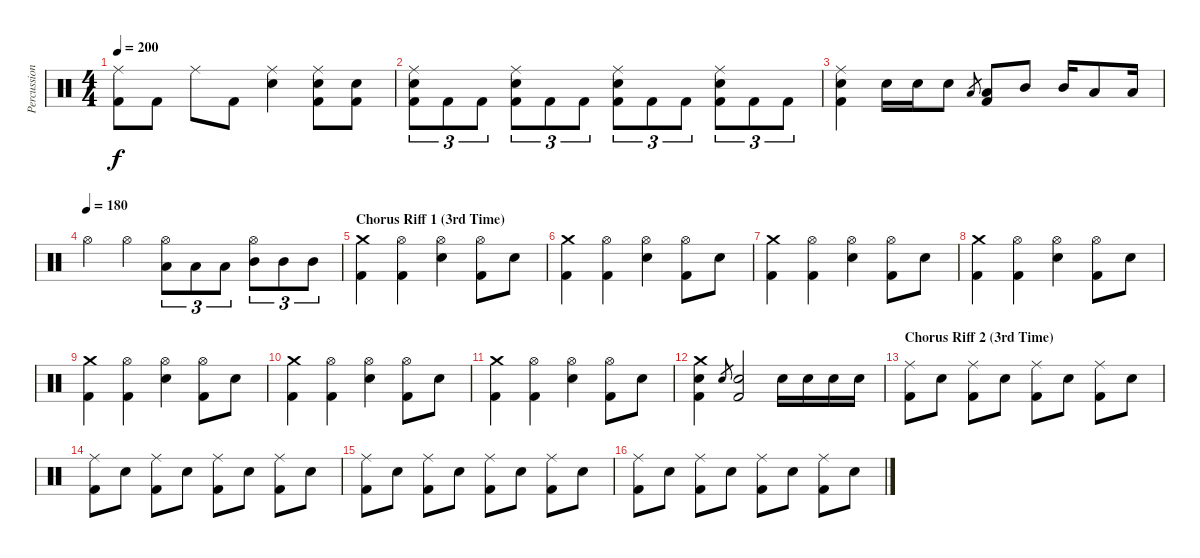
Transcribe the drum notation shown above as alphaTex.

\track ("Percussion" "Percussion") {instrument percussion}
\staff {score}
\articulation defaults
\ts (4 4)
\tempo 200
\clef neutral
\ks c
("Ride (middle)" "Kick (hit) 2").8{dy f} "Kick (hit) 2".8 "Ride (middle)".8 "Kick (hit) 2".8 ("Ride (middle)" "Electric Snare (hit)").4 ("Ride (middle)" "Electric Snare (hit)" "Kick (hit) 2").8 ("Electric Snare (hit)" "Kick (hit) 2").8 |
("Ride (middle)" "Electric Snare (hit)" "Kick (hit) 2").8{tu (3 2)} "Kick (hit) 2".8{tu (3 2)} "Kick (hit) 2".8{tu (3 2)} ("Ride (middle)" "Electric Snare (hit)" "Kick (hit) 2").8{tu (3 2)} "Kick (hit) 2".8{tu (3 2)} "Kick (hit) 2".8{tu (3 2)} ("Ride (middle)" "Electric Snare (hit)" "Kick (hit) 2").8{tu (3 2)} "Kick (hit) 2".8{tu (3 2)} "Kick (hit) 2".8{tu (3 2)} ("Ride (middle)" "Electric Snare (hit)" "Kick (hit) 2").8{tu (3 2)} "Kick (hit) 2".8{tu (3 2)} "Kick (hit) 2".8{tu (3 2)} |
("Ride (middle)" "Electric Snare (hit)" "Kick (hit) 2").4 "Electric Snare (hit)".16 "Electric Snare (hit)".16 "Electric Snare (hit)".8 "Low Tom (hit)".8{gr} ("Low Tom (hit)" "Kick (hit) 2").8 "Mid Tom (hit)".8 "Mid Tom (hit)".16 "Low Floor Tom (hit)".8 "Low Floor Tom (hit)".16 |
\tempo (180)
"Hi-Hat (open)".4 "Hi-Hat (open)".4 ("Hi-Hat (open)" "Low Tom (hit)").8{tu (3 2)} "Low Tom (hit)".8{tu (3 2)} "Low Tom (hit)".8{tu (3 2)} ("Hi-Hat (open)" "Mid Tom (hit)").8{tu (3 2)} "Mid Tom (hit)".8{tu (3 2)} "Mid Tom (hit)".8{tu (3 2)} |
\section ("" "Chorus Riff 1 (3rd Time)")
("Crash medium (hit)" "Kick (hit) 2").4 ("Hi-Hat (open)" "Kick (hit) 2").4 ("Hi-Hat (open)" "Electric Snare (hit)").4 ("Hi-Hat (open)" "Kick (hit) 2").8 "Electric Snare (hit)".8 |
("Crash medium (hit)" "Kick (hit) 2").4 ("Hi-Hat (open)" "Kick (hit) 2").4 ("Hi-Hat (open)" "Electric Snare (hit)").4 ("Hi-Hat (open)" "Kick (hit) 2").8 "Electric Snare (hit)".8 |
("Crash medium (hit)" "Kick (hit) 2").4 ("Hi-Hat (open)" "Kick (hit) 2").4 ("Hi-Hat (open)" "Electric Snare (hit)").4 ("Hi-Hat (open)" "Kick (hit) 2").8 "Electric Snare (hit)".8 |
("Crash medium (hit)" "Kick (hit) 2").4 ("Hi-Hat (open)" "Kick (hit) 2").4 ("Hi-Hat (open)" "Electric Snare (hit)").4 ("Hi-Hat (open)" "Kick (hit) 2").8 "Electric Snare (hit)".8 |
("Crash medium (hit)" "Kick (hit) 2").4 ("Hi-Hat (open)" "Kick (hit) 2").4 ("Hi-Hat (open)" "Electric Snare (hit)").4 ("Hi-Hat (open)" "Kick (hit) 2").8 "Electric Snare (hit)".8 |
("Crash medium (hit)" "Kick (hit) 2").4 ("Hi-Hat (open)" "Kick (hit) 2").4 ("Hi-Hat (open)" "Electric Snare (hit)").4 ("Hi-Hat (open)" "Kick (hit) 2").8 "Electric Snare (hit)".8 |
("Crash medium (hit)" "Kick (hit) 2").4 ("Hi-Hat (open)" "Kick (hit) 2").4 ("Hi-Hat (open)" "Electric Snare (hit)").4 ("Hi-Hat (open)" "Kick (hit) 2").8 "Electric Snare (hit)".8 |
("Crash medium (hit)" "Electric Snare (hit)" "Kick (hit) 2").4 "Electric Snare (hit)".8{gr} ("Electric Snare (hit)" "Kick (hit) 2").2 "Electric Snare (hit)".16 "Electric Snare (hit)".16 "Electric Snare (hit)".16 "Electric Snare (hit)".16 |
\section ("" "Chorus Riff 2 (3rd Time)")
("Ride (middle)" "Kick (hit) 2").8 "Electric Snare (hit)".8 ("Ride (middle)" "Kick (hit) 2").8 "Electric Snare (hit)".8 ("Ride (middle)" "Kick (hit) 2").8 "Electric Snare (hit)".8 ("Ride (middle)" "Kick (hit) 2").8 "Electric Snare (hit)".8 |
("Ride (middle)" "Kick (hit) 2").8 "Electric Snare (hit)".8 ("Ride (middle)" "Kick (hit) 2").8 "Electric Snare (hit)".8 ("Ride (middle)" "Kick (hit) 2").8 "Electric Snare (hit)".8 ("Ride (middle)" "Kick (hit) 2").8 "Electric Snare (hit)".8 |
("Ride (middle)" "Kick (hit) 2").8 "Electric Snare (hit)".8 ("Ride (middle)" "Kick (hit) 2").8 "Electric Snare (hit)".8 ("Ride (middle)" "Kick (hit) 2").8 "Electric Snare (hit)".8 ("Ride (middle)" "Kick (hit) 2").8 "Electric Snare (hit)".8 |
("Ride (middle)" "Kick (hit) 2").8 "Electric Snare (hit)".8 ("Ride (middle)" "Kick (hit) 2").8 "Electric Snare (hit)".8 ("Ride (middle)" "Kick (hit) 2").8 "Electric Snare (hit)".8 ("Ride (middle)" "Kick (hit) 2").8 "Electric Snare (hit)".8
